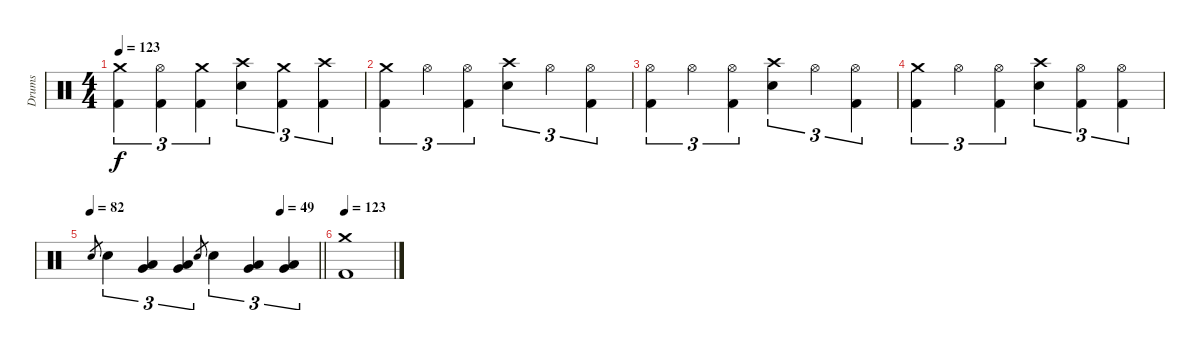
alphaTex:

\track ("Drums" "Drums") {instrument percussion}
\staff {score}
\articulation defaults
\ts (4 4)
\tempo 123
\clef neutral
\ks c
("Crash medium (hit)" "Kick (hit) 2").4{tu (3 2) dy f} ("Hi-Hat (open)" "Kick (hit) 2").4{tu (3 2)} ("Crash medium (hit)" "Kick (hit) 2").4{tu (3 2)} ("Crash high (hit)" "Electric Snare (hit)").4{tu (3 2)} ("Crash medium (hit)" "Kick (hit) 2").4{tu (3 2)} ("Crash high (hit)" "Kick (hit) 2").4{tu (3 2)} |
("Crash medium (hit)" "Kick (hit) 2").4{tu (3 2)} "Hi-Hat (open)".4{tu (3 2)} ("Hi-Hat (open)" "Kick (hit) 2").4{tu (3 2)} ("Crash high (hit)" "Electric Snare (hit)").4{tu (3 2)} "Hi-Hat (open)".4{tu (3 2)} ("Hi-Hat (open)" "Kick (hit) 2").4{tu (3 2)} |
("Hi-Hat (open)" "Kick (hit) 2").4{tu (3 2)} "Hi-Hat (open)".4{tu (3 2)} ("Hi-Hat (open)" "Kick (hit) 2").4{tu (3 2)} ("Crash high (hit)" "Electric Snare (hit)").4{tu (3 2)} "Hi-Hat (open)".4{tu (3 2)} ("Hi-Hat (open)" "Kick (hit) 2").4{tu (3 2)} |
("Crash medium (hit)" "Kick (hit) 2").4{tu (3 2)} "Hi-Hat (open)".4{tu (3 2)} ("Hi-Hat (open)" "Kick (hit) 2").4{tu (3 2)} ("Crash high (hit)" "Electric Snare (hit)").4{tu (3 2)} ("Hi-Hat (open)" "Kick (hit) 2").4{tu (3 2)} ("Hi-Hat (open)" "Kick (hit) 2").4{tu (3 2)} |
\tempo 82
\tempo (49 0.8333333333333334)
\barLineRight lightlight "Electric Snare (hit)".8{gr} "Electric Snare (hit)".4{tu (3 2)}
("Very Low Tom (hit)" "Low Tom (hit)").4{tu (3 2)} ("Very Low Tom (hit)" "Low Floor Tom (hit)").4{tu (3 2)} "Electric Snare (hit)".8{gr} "Electric Snare (hit)".4{tu (3 2)} ("Very Low Tom (hit)" "Low Tom (hit)").4{tu (3 2)} ("Very Low Tom (hit)" "Low Floor Tom (hit)").4{tu (3 2)} |
\tempo 123
("Crash medium (hit)" "Kick (hit) 2").1
